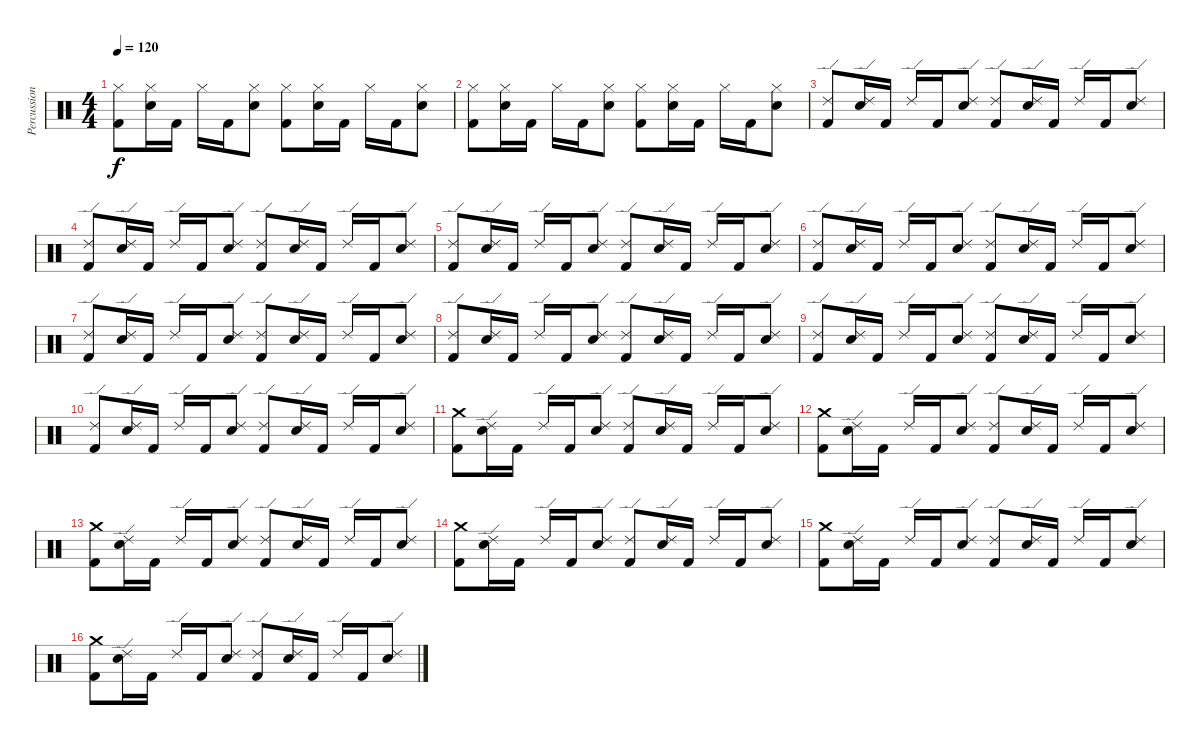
\track ("Percussions" "Percussion") {instrument percussion}
\staff {score}
\articulation defaults
\ts (4 4)
\tempo 120
\clef neutral
\ks c
("Hi-Hat (closed)" "Kick (hit) 2").8{dy f} ("Hi-Hat (closed)" "Snare (hit) 2").16 "Kick (hit) 2".16 "Hi-Hat (closed)".16 "Kick (hit) 2".16 ("Hi-Hat (closed)" "Snare (hit) 2").8 ("Hi-Hat (closed)" "Kick (hit) 2").8 ("Hi-Hat (closed)" "Snare (hit) 2").16 "Kick (hit) 2".16 "Hi-Hat (closed)".16 "Kick (hit) 2".16 ("Hi-Hat (closed)" "Snare (hit) 2").8 |
("Hi-Hat (closed)" "Kick (hit) 2").8 ("Hi-Hat (closed)" "Snare (hit) 2").16 "Kick (hit) 2".16 "Hi-Hat (closed)".16 "Kick (hit) 2".16 ("Hi-Hat (closed)" "Snare (hit) 2").8 ("Hi-Hat (closed)" "Kick (hit) 2").8 ("Hi-Hat (closed)" "Snare (hit) 2").16 "Kick (hit) 2".16 "Hi-Hat (closed)".16 "Kick (hit) 2".16 ("Hi-Hat (closed)" "Snare (hit) 2").8 |
("Ride (edge) 2" "Kick (hit) 2").8 ("Ride (edge) 2" "Snare (hit) 2").16 "Kick (hit) 2".16 "Ride (edge) 2".16 "Kick (hit) 2".16 ("Ride (edge) 2" "Snare (hit) 2").8 ("Ride (edge) 2" "Kick (hit) 2").8 ("Ride (edge) 2" "Snare (hit) 2").16 "Kick (hit) 2".16 "Ride (edge) 2".16 "Kick (hit) 2".16 ("Ride (edge) 2" "Snare (hit) 2").8 |
("Ride (edge) 2" "Kick (hit) 2").8 ("Ride (edge) 2" "Snare (hit) 2").16 "Kick (hit) 2".16 "Ride (edge) 2".16 "Kick (hit) 2".16 ("Ride (edge) 2" "Snare (hit) 2").8 ("Ride (edge) 2" "Kick (hit) 2").8 ("Ride (edge) 2" "Snare (hit) 2").16 "Kick (hit) 2".16 "Ride (edge) 2".16 "Kick (hit) 2".16 ("Ride (edge) 2" "Snare (hit) 2").8 |
("Ride (edge) 2" "Kick (hit) 2").8 ("Ride (edge) 2" "Snare (hit) 2").16 "Kick (hit) 2".16 "Ride (edge) 2".16 "Kick (hit) 2".16 ("Ride (edge) 2" "Snare (hit) 2").8 ("Ride (edge) 2" "Kick (hit) 2").8 ("Ride (edge) 2" "Snare (hit) 2").16 "Kick (hit) 2".16 "Ride (edge) 2".16 "Kick (hit) 2".16 ("Ride (edge) 2" "Snare (hit) 2").8 |
("Ride (edge) 2" "Kick (hit) 2").8 ("Ride (edge) 2" "Snare (hit) 2").16 "Kick (hit) 2".16 "Ride (edge) 2".16 "Kick (hit) 2".16 ("Ride (edge) 2" "Snare (hit) 2").8 ("Ride (edge) 2" "Kick (hit) 2").8 ("Ride (edge) 2" "Snare (hit) 2").16 "Kick (hit) 2".16 "Ride (edge) 2".16 "Kick (hit) 2".16 ("Ride (edge) 2" "Snare (hit) 2").8 |
("Ride (edge) 2" "Kick (hit) 2").8 ("Ride (edge) 2" "Snare (hit) 2").16 "Kick (hit) 2".16 "Ride (edge) 2".16 "Kick (hit) 2".16 ("Ride (edge) 2" "Snare (hit) 2").8 ("Ride (edge) 2" "Kick (hit) 2").8 ("Ride (edge) 2" "Snare (hit) 2").16 "Kick (hit) 2".16 "Ride (edge) 2".16 "Kick (hit) 2".16 ("Ride (edge) 2" "Snare (hit) 2").8 |
("Ride (edge) 2" "Kick (hit) 2").8 ("Ride (edge) 2" "Snare (hit) 2").16 "Kick (hit) 2".16 "Ride (edge) 2".16 "Kick (hit) 2".16 ("Ride (edge) 2" "Snare (hit) 2").8 ("Ride (edge) 2" "Kick (hit) 2").8 ("Ride (edge) 2" "Snare (hit) 2").16 "Kick (hit) 2".16 "Ride (edge) 2".16 "Kick (hit) 2".16 ("Ride (edge) 2" "Snare (hit) 2").8 |
("Ride (edge) 2" "Kick (hit) 2").8 ("Ride (edge) 2" "Snare (hit) 2").16 "Kick (hit) 2".16 "Ride (edge) 2".16 "Kick (hit) 2".16 ("Ride (edge) 2" "Snare (hit) 2").8 ("Ride (edge) 2" "Kick (hit) 2").8 ("Ride (edge) 2" "Snare (hit) 2").16 "Kick (hit) 2".16 "Ride (edge) 2".16 "Kick (hit) 2".16 ("Ride (edge) 2" "Snare (hit) 2").8 |
("Ride (edge) 2" "Kick (hit) 2").8 ("Ride (edge) 2" "Snare (hit) 2").16 "Kick (hit) 2".16 "Ride (edge) 2".16 "Kick (hit) 2".16 ("Ride (edge) 2" "Snare (hit) 2").8 ("Ride (edge) 2" "Kick (hit) 2").8 ("Ride (edge) 2" "Snare (hit) 2").16 "Kick (hit) 2".16 "Ride (edge) 2".16 "Kick (hit) 2".16 ("Ride (edge) 2" "Snare (hit) 2").8 |
("Crash medium (hit)" "Kick (hit) 2").8 ("Ride (edge) 2" "Snare (hit) 2").16 "Kick (hit) 2".16 "Ride (edge) 2".16 "Kick (hit) 2".16 ("Ride (edge) 2" "Snare (hit) 2").8 ("Ride (edge) 2" "Kick (hit) 2").8 ("Ride (edge) 2" "Snare (hit) 2").16 "Kick (hit) 2".16 "Ride (edge) 2".16 "Kick (hit) 2".16 ("Ride (edge) 2" "Snare (hit) 2").8 |
("Crash medium (hit)" "Kick (hit) 2").8 ("Ride (edge) 2" "Snare (hit) 2").16 "Kick (hit) 2".16 "Ride (edge) 2".16 "Kick (hit) 2".16 ("Ride (edge) 2" "Snare (hit) 2").8 ("Ride (edge) 2" "Kick (hit) 2").8 ("Ride (edge) 2" "Snare (hit) 2").16 "Kick (hit) 2".16 "Ride (edge) 2".16 "Kick (hit) 2".16 ("Ride (edge) 2" "Snare (hit) 2").8 |
("Crash medium (hit)" "Kick (hit) 2").8 ("Ride (edge) 2" "Snare (hit) 2").16 "Kick (hit) 2".16 "Ride (edge) 2".16 "Kick (hit) 2".16 ("Ride (edge) 2" "Snare (hit) 2").8 ("Ride (edge) 2" "Kick (hit) 2").8 ("Ride (edge) 2" "Snare (hit) 2").16 "Kick (hit) 2".16 "Ride (edge) 2".16 "Kick (hit) 2".16 ("Ride (edge) 2" "Snare (hit) 2").8 |
("Crash medium (hit)" "Kick (hit) 2").8 ("Ride (edge) 2" "Snare (hit) 2").16 "Kick (hit) 2".16 "Ride (edge) 2".16 "Kick (hit) 2".16 ("Ride (edge) 2" "Snare (hit) 2").8 ("Ride (edge) 2" "Kick (hit) 2").8 ("Ride (edge) 2" "Snare (hit) 2").16 "Kick (hit) 2".16 "Ride (edge) 2".16 "Kick (hit) 2".16 ("Ride (edge) 2" "Snare (hit) 2").8 |
("Crash medium (hit)" "Kick (hit) 2").8 ("Ride (edge) 2" "Snare (hit) 2").16 "Kick (hit) 2".16 "Ride (edge) 2".16 "Kick (hit) 2".16 ("Ride (edge) 2" "Snare (hit) 2").8 ("Ride (edge) 2" "Kick (hit) 2").8 ("Ride (edge) 2" "Snare (hit) 2").16 "Kick (hit) 2".16 "Ride (edge) 2".16 "Kick (hit) 2".16 ("Ride (edge) 2" "Snare (hit) 2").8 |
("Crash medium (hit)" "Kick (hit) 2").8 ("Ride (edge) 2" "Snare (hit) 2").16 "Kick (hit) 2".16 "Ride (edge) 2".16 "Kick (hit) 2".16 ("Ride (edge) 2" "Snare (hit) 2").8 ("Ride (edge) 2" "Kick (hit) 2").8 ("Ride (edge) 2" "Snare (hit) 2").16 "Kick (hit) 2".16 "Ride (edge) 2".16 "Kick (hit) 2".16 ("Ride (edge) 2" "Snare (hit) 2").8
